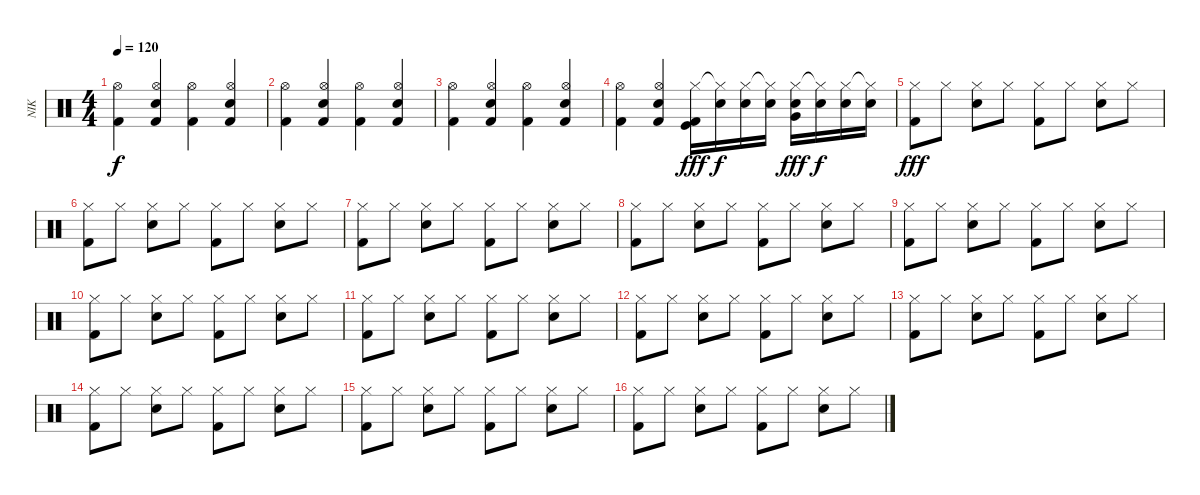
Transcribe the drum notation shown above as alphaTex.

\track ("NIK" "NIK") {instrument percussion}
\staff {score}
\articulation defaults
\ts (4 4)
\tempo 120
\clef neutral
\ks c
("Kick (hit) 2" "Hi-Hat (open)").4{dy f} ("Kick (hit) 2" "Hi-Hat (open)" "Snare (hit) 2").4 ("Kick (hit) 2" "Hi-Hat (open)").4 ("Kick (hit) 2" "Hi-Hat (open)" "Snare (hit) 2").4 |
("Kick (hit) 2" "Hi-Hat (open)").4 ("Kick (hit) 2" "Hi-Hat (open)" "Snare (hit) 2").4 ("Kick (hit) 2" "Hi-Hat (open)").4 ("Kick (hit) 2" "Hi-Hat (open)" "Snare (hit) 2").4 |
("Kick (hit) 2" "Hi-Hat (open)").4 ("Kick (hit) 2" "Hi-Hat (open)" "Snare (hit) 2").4 ("Kick (hit) 2" "Hi-Hat (open)").4 ("Kick (hit) 2" "Hi-Hat (open)" "Snare (hit) 2").4 |
("Kick (hit) 2" "Hi-Hat (open)").4 ("Kick (hit) 2" "Hi-Hat (open)" "Snare (hit) 2").4 ("Hi-Hat (closed)" "Kick (hit) 2" "Kick (hit)").16{dy fff} ("Hi-Hat (closed)"{t} "Electric Snare (hit)").16{dy f} ("Hi-Hat (closed)" "Electric Snare (hit)").16 ("Hi-Hat (closed)"{t} "Electric Snare (hit)").16 ("Hi-Hat (closed)" "Electric Snare (hit)" "Very Low Tom (hit)").16{dy fff} ("Hi-Hat (closed)"{t} "Electric Snare (hit)").16{dy f} ("Hi-Hat (closed)" "Electric Snare (hit)").16 ("Hi-Hat (closed)"{t} "Electric Snare (hit)").16 |
("Hi-Hat (closed)" "Kick (hit) 2").8{dy fff} "Hi-Hat (closed)".8 ("Hi-Hat (closed)" "Electric Snare (hit)").8 "Hi-Hat (closed)".8 ("Hi-Hat (closed)" "Kick (hit) 2").8 "Hi-Hat (closed)".8 ("Hi-Hat (closed)" "Electric Snare (hit)").8 "Hi-Hat (closed)".8 |
("Hi-Hat (closed)" "Kick (hit) 2").8 "Hi-Hat (closed)".8 ("Hi-Hat (closed)" "Electric Snare (hit)").8 "Hi-Hat (closed)".8 ("Hi-Hat (closed)" "Kick (hit) 2").8 "Hi-Hat (closed)".8 ("Hi-Hat (closed)" "Electric Snare (hit)").8 "Hi-Hat (closed)".8 |
("Hi-Hat (closed)" "Kick (hit) 2").8 "Hi-Hat (closed)".8 ("Hi-Hat (closed)" "Electric Snare (hit)").8 "Hi-Hat (closed)".8 ("Hi-Hat (closed)" "Kick (hit) 2").8 "Hi-Hat (closed)".8 ("Hi-Hat (closed)" "Electric Snare (hit)").8 "Hi-Hat (closed)".8 |
("Hi-Hat (closed)" "Kick (hit) 2").8 "Hi-Hat (closed)".8 ("Hi-Hat (closed)" "Electric Snare (hit)").8 "Hi-Hat (closed)".8 ("Hi-Hat (closed)" "Kick (hit) 2").8 "Hi-Hat (closed)".8 ("Hi-Hat (closed)" "Electric Snare (hit)").8 "Hi-Hat (closed)".8 |
("Hi-Hat (closed)" "Kick (hit) 2").8 "Hi-Hat (closed)".8 ("Hi-Hat (closed)" "Electric Snare (hit)").8 "Hi-Hat (closed)".8 ("Hi-Hat (closed)" "Kick (hit) 2").8 "Hi-Hat (closed)".8 ("Hi-Hat (closed)" "Electric Snare (hit)").8 "Hi-Hat (closed)".8 |
("Hi-Hat (closed)" "Kick (hit) 2").8 "Hi-Hat (closed)".8 ("Hi-Hat (closed)" "Electric Snare (hit)").8 "Hi-Hat (closed)".8 ("Hi-Hat (closed)" "Kick (hit) 2").8 "Hi-Hat (closed)".8 ("Hi-Hat (closed)" "Electric Snare (hit)").8 "Hi-Hat (closed)".8 |
("Hi-Hat (closed)" "Kick (hit) 2").8 "Hi-Hat (closed)".8 ("Hi-Hat (closed)" "Electric Snare (hit)").8 "Hi-Hat (closed)".8 ("Hi-Hat (closed)" "Kick (hit) 2").8 "Hi-Hat (closed)".8 ("Hi-Hat (closed)" "Electric Snare (hit)").8 "Hi-Hat (closed)".8 |
("Hi-Hat (closed)" "Kick (hit) 2").8 "Hi-Hat (closed)".8 ("Hi-Hat (closed)" "Electric Snare (hit)").8 "Hi-Hat (closed)".8 ("Hi-Hat (closed)" "Kick (hit) 2").8 "Hi-Hat (closed)".8 ("Hi-Hat (closed)" "Electric Snare (hit)").8 "Hi-Hat (closed)".8 |
("Hi-Hat (closed)" "Kick (hit) 2").8 "Hi-Hat (closed)".8 ("Hi-Hat (closed)" "Electric Snare (hit)").8 "Hi-Hat (closed)".8 ("Hi-Hat (closed)" "Kick (hit) 2").8 "Hi-Hat (closed)".8 ("Hi-Hat (closed)" "Electric Snare (hit)").8 "Hi-Hat (closed)".8 |
("Hi-Hat (closed)" "Kick (hit) 2").8 "Hi-Hat (closed)".8 ("Hi-Hat (closed)" "Electric Snare (hit)").8 "Hi-Hat (closed)".8 ("Hi-Hat (closed)" "Kick (hit) 2").8 "Hi-Hat (closed)".8 ("Hi-Hat (closed)" "Electric Snare (hit)").8 "Hi-Hat (closed)".8 |
("Hi-Hat (closed)" "Kick (hit) 2").8 "Hi-Hat (closed)".8 ("Hi-Hat (closed)" "Electric Snare (hit)").8 "Hi-Hat (closed)".8 ("Hi-Hat (closed)" "Kick (hit) 2").8 "Hi-Hat (closed)".8 ("Hi-Hat (closed)" "Electric Snare (hit)").8 "Hi-Hat (closed)".8 |
("Hi-Hat (closed)" "Kick (hit) 2").8 "Hi-Hat (closed)".8 ("Hi-Hat (closed)" "Electric Snare (hit)").8 "Hi-Hat (closed)".8 ("Hi-Hat (closed)" "Kick (hit) 2").8 "Hi-Hat (closed)".8 ("Hi-Hat (closed)" "Electric Snare (hit)").8 "Hi-Hat (closed)".8
